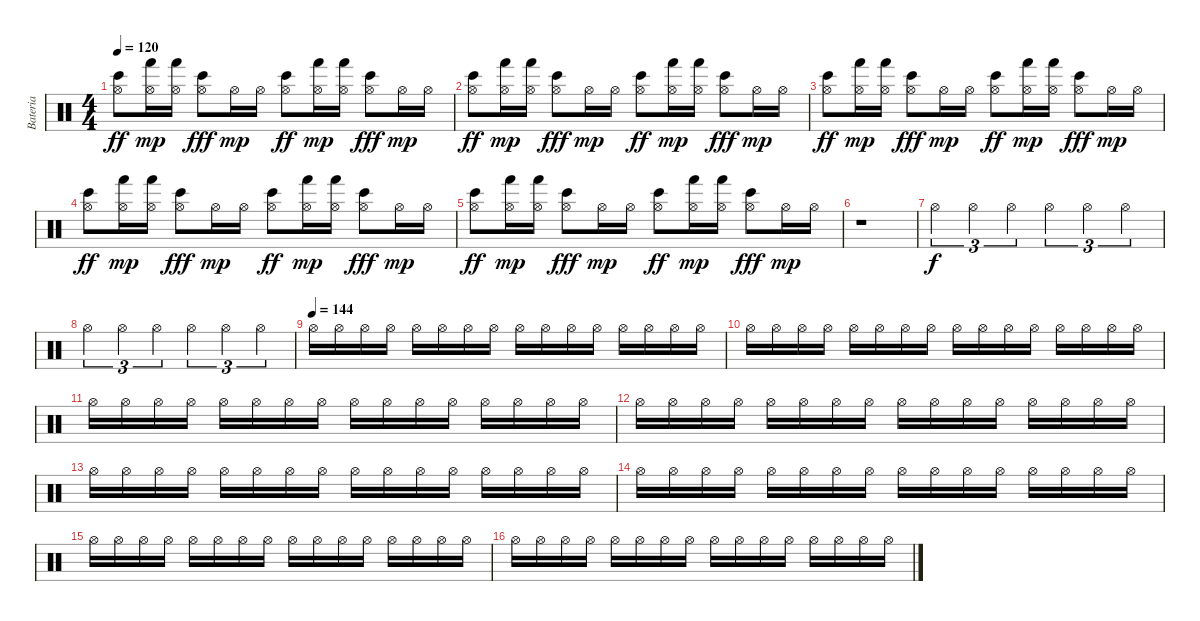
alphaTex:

\track ("Bateria" "Bateria") {instrument percussion}
\staff {score}
\articulation defaults
\ts (4 4)
\tempo 120
\clef neutral
\ks c
("Hi-Hat (open)" "Bongo High (hit)").8{dy ff} ("Hi-Hat (open)" "Hand (hit)").16{dy mp} ("Hi-Hat (open)" "Hand (hit)").16 ("Hi-Hat (open)" "Bongo High (hit)").8{dy fff} "Hi-Hat (open)".16{dy mp} "Hi-Hat (open)".16 ("Hi-Hat (open)" "Bongo High (hit)").8{dy ff} ("Hi-Hat (open)" "Hand (hit)").16{dy mp} ("Hi-Hat (open)" "Hand (hit)").16 ("Hi-Hat (open)" "Bongo High (hit)").8{dy fff} "Hi-Hat (open)".16{dy mp} "Hi-Hat (open)".16 |
("Hi-Hat (open)" "Bongo High (hit)").8{dy ff} ("Hi-Hat (open)" "Hand (hit)").16{dy mp} ("Hi-Hat (open)" "Hand (hit)").16 ("Hi-Hat (open)" "Bongo High (hit)").8{dy fff} "Hi-Hat (open)".16{dy mp} "Hi-Hat (open)".16 ("Hi-Hat (open)" "Bongo High (hit)").8{dy ff} ("Hi-Hat (open)" "Hand (hit)").16{dy mp} ("Hi-Hat (open)" "Hand (hit)").16 ("Hi-Hat (open)" "Bongo High (hit)").8{dy fff} "Hi-Hat (open)".16{dy mp} "Hi-Hat (open)".16 |
("Hi-Hat (open)" "Bongo High (hit)").8{dy ff} ("Hi-Hat (open)" "Hand (hit)").16{dy mp} ("Hi-Hat (open)" "Hand (hit)").16 ("Hi-Hat (open)" "Bongo High (hit)").8{dy fff} "Hi-Hat (open)".16{dy mp} "Hi-Hat (open)".16 ("Hi-Hat (open)" "Bongo High (hit)").8{dy ff} ("Hi-Hat (open)" "Hand (hit)").16{dy mp} ("Hi-Hat (open)" "Hand (hit)").16 ("Hi-Hat (open)" "Bongo High (hit)").8{dy fff} "Hi-Hat (open)".16{dy mp} "Hi-Hat (open)".16 |
("Hi-Hat (open)" "Bongo High (hit)").8{dy ff} ("Hi-Hat (open)" "Hand (hit)").16{dy mp} ("Hi-Hat (open)" "Hand (hit)").16 ("Hi-Hat (open)" "Bongo High (hit)").8{dy fff} "Hi-Hat (open)".16{dy mp} "Hi-Hat (open)".16 ("Hi-Hat (open)" "Bongo High (hit)").8{dy ff} ("Hi-Hat (open)" "Hand (hit)").16{dy mp} ("Hi-Hat (open)" "Hand (hit)").16 ("Hi-Hat (open)" "Bongo High (hit)").8{dy fff} "Hi-Hat (open)".16{dy mp} "Hi-Hat (open)".16 |
("Hi-Hat (open)" "Bongo High (hit)").8{dy ff} ("Hi-Hat (open)" "Hand (hit)").16{dy mp} ("Hi-Hat (open)" "Hand (hit)").16 ("Hi-Hat (open)" "Bongo High (hit)").8{dy fff} "Hi-Hat (open)".16{dy mp} "Hi-Hat (open)".16 ("Hi-Hat (open)" "Bongo High (hit)").8{dy ff} ("Hi-Hat (open)" "Hand (hit)").16{dy mp} ("Hi-Hat (open)" "Hand (hit)").16 ("Hi-Hat (open)" "Bongo High (hit)").8{dy fff} "Hi-Hat (open)".16{dy mp} "Hi-Hat (open)".16 |
r.1 |
"Hi-Hat (open)".4{tu (3 2) dy f} "Hi-Hat (open)".4{tu (3 2)} "Hi-Hat (open)".4{tu (3 2)} "Hi-Hat (open)".4{tu (3 2)} "Hi-Hat (open)".4{tu (3 2)} "Hi-Hat (open)".4{tu (3 2)} |
"Hi-Hat (open)".4{tu (3 2)} "Hi-Hat (open)".4{tu (3 2)} "Hi-Hat (open)".4{tu (3 2)} "Hi-Hat (open)".4{tu (3 2)} "Hi-Hat (open)".4{tu (3 2)} "Hi-Hat (open)".4{tu (3 2)} |
\tempo (144)
"Hi-Hat (open)".16 "Hi-Hat (open)".16 "Hi-Hat (open)".16 "Hi-Hat (open)".16 "Hi-Hat (open)".16 "Hi-Hat (open)".16 "Hi-Hat (open)".16 "Hi-Hat (open)".16 "Hi-Hat (open)".16 "Hi-Hat (open)".16 "Hi-Hat (open)".16 "Hi-Hat (open)".16 "Hi-Hat (open)".16 "Hi-Hat (open)".16 "Hi-Hat (open)".16 "Hi-Hat (open)".16 |
"Hi-Hat (open)".16 "Hi-Hat (open)".16 "Hi-Hat (open)".16 "Hi-Hat (open)".16 "Hi-Hat (open)".16 "Hi-Hat (open)".16 "Hi-Hat (open)".16 "Hi-Hat (open)".16 "Hi-Hat (open)".16 "Hi-Hat (open)".16 "Hi-Hat (open)".16 "Hi-Hat (open)".16 "Hi-Hat (open)".16 "Hi-Hat (open)".16 "Hi-Hat (open)".16 "Hi-Hat (open)".16 |
"Hi-Hat (open)".16 "Hi-Hat (open)".16 "Hi-Hat (open)".16 "Hi-Hat (open)".16 "Hi-Hat (open)".16 "Hi-Hat (open)".16 "Hi-Hat (open)".16 "Hi-Hat (open)".16 "Hi-Hat (open)".16 "Hi-Hat (open)".16 "Hi-Hat (open)".16 "Hi-Hat (open)".16 "Hi-Hat (open)".16 "Hi-Hat (open)".16 "Hi-Hat (open)".16 "Hi-Hat (open)".16 |
"Hi-Hat (open)".16 "Hi-Hat (open)".16 "Hi-Hat (open)".16 "Hi-Hat (open)".16 "Hi-Hat (open)".16 "Hi-Hat (open)".16 "Hi-Hat (open)".16 "Hi-Hat (open)".16 "Hi-Hat (open)".16 "Hi-Hat (open)".16 "Hi-Hat (open)".16 "Hi-Hat (open)".16 "Hi-Hat (open)".16 "Hi-Hat (open)".16 "Hi-Hat (open)".16 "Hi-Hat (open)".16 |
"Hi-Hat (open)".16 "Hi-Hat (open)".16 "Hi-Hat (open)".16 "Hi-Hat (open)".16 "Hi-Hat (open)".16 "Hi-Hat (open)".16 "Hi-Hat (open)".16 "Hi-Hat (open)".16 "Hi-Hat (open)".16 "Hi-Hat (open)".16 "Hi-Hat (open)".16 "Hi-Hat (open)".16 "Hi-Hat (open)".16 "Hi-Hat (open)".16 "Hi-Hat (open)".16 "Hi-Hat (open)".16 |
"Hi-Hat (open)".16 "Hi-Hat (open)".16 "Hi-Hat (open)".16 "Hi-Hat (open)".16 "Hi-Hat (open)".16 "Hi-Hat (open)".16 "Hi-Hat (open)".16 "Hi-Hat (open)".16 "Hi-Hat (open)".16 "Hi-Hat (open)".16 "Hi-Hat (open)".16 "Hi-Hat (open)".16 "Hi-Hat (open)".16 "Hi-Hat (open)".16 "Hi-Hat (open)".16 "Hi-Hat (open)".16 |
"Hi-Hat (open)".16 "Hi-Hat (open)".16 "Hi-Hat (open)".16 "Hi-Hat (open)".16 "Hi-Hat (open)".16 "Hi-Hat (open)".16 "Hi-Hat (open)".16 "Hi-Hat (open)".16 "Hi-Hat (open)".16 "Hi-Hat (open)".16 "Hi-Hat (open)".16 "Hi-Hat (open)".16 "Hi-Hat (open)".16 "Hi-Hat (open)".16 "Hi-Hat (open)".16 "Hi-Hat (open)".16 |
"Hi-Hat (open)".16 "Hi-Hat (open)".16 "Hi-Hat (open)".16 "Hi-Hat (open)".16 "Hi-Hat (open)".16 "Hi-Hat (open)".16 "Hi-Hat (open)".16 "Hi-Hat (open)".16 "Hi-Hat (open)".16 "Hi-Hat (open)".16 "Hi-Hat (open)".16 "Hi-Hat (open)".16 "Hi-Hat (open)".16 "Hi-Hat (open)".16 "Hi-Hat (open)".16 "Hi-Hat (open)".16
